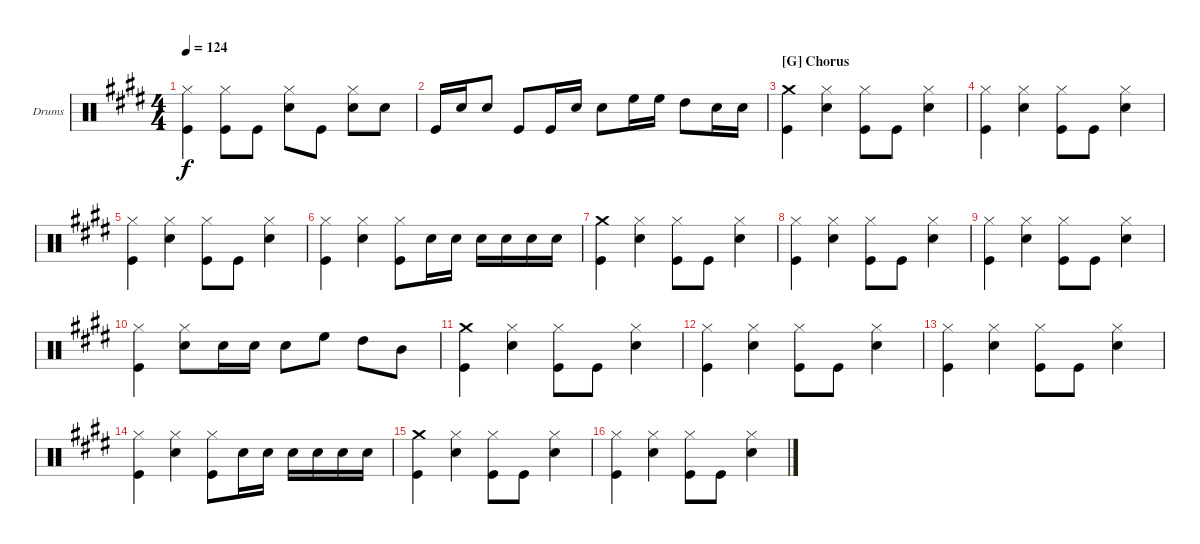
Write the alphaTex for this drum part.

\defaultSystemsLayout 4
\bracketExtendMode groupsimilarinstruments
\firstSystemTrackNameOrientation horizontal
\otherSystemsTrackNameOrientation horizontal
\track ("Drumkit" "Drums") {instrument percussion}
\staff {score}
\articulation defaults
\ts (4 4)
\tempo 124
\clef neutral
\ks e
("Hi-Hat (closed)" "Kick (hit)").4{dy f} ("Hi-Hat (closed)" "Kick (hit)").8 "Kick (hit)".8 ("Hi-Hat (closed)" "Snare (hit) 2").8 "Kick (hit)".8 ("Hi-Hat (closed)" "Snare (hit) 2").8 "Snare (hit) 2".8 |
"Kick (hit)".16 "Snare (hit) 2".16 "Snare (hit) 2".8 "Kick (hit)".8 "Kick (hit)".16 "Snare (hit) 2".16 "Snare (hit) 2".8 "High Floor Tom (hit)".16 "High Floor Tom (hit)".16 "High Tom (hit)".8 "Snare (hit) 2".16 "Snare (hit) 2".16 |
\section ("G" "Chorus")
("Crash medium (hit)" "Kick (hit)").4 ("Hi-Hat (closed)" "Snare (hit) 2").4 ("Hi-Hat (closed)" "Kick (hit)").8 "Kick (hit)".8 ("Hi-Hat (closed)" "Snare (hit) 2").4 |
("Hi-Hat (closed)" "Kick (hit)").4 ("Hi-Hat (closed)" "Snare (hit) 2").4 ("Hi-Hat (closed)" "Kick (hit)").8 "Kick (hit)".8 ("Hi-Hat (closed)" "Snare (hit) 2").4 |
("Hi-Hat (closed)" "Kick (hit)").4 ("Hi-Hat (closed)" "Snare (hit) 2").4 ("Hi-Hat (closed)" "Kick (hit)").8 "Kick (hit)".8 ("Hi-Hat (closed)" "Snare (hit) 2").4 |
("Hi-Hat (closed)" "Kick (hit)").4 ("Hi-Hat (closed)" "Snare (hit) 2").4 ("Hi-Hat (closed)" "Kick (hit)").8 "Snare (hit) 2".16 "Snare (hit) 2".16 "Snare (hit) 2".16 "Snare (hit) 2".16 "Snare (hit) 2".16 "Snare (hit) 2".16 |
("Crash medium (hit)" "Kick (hit)").4 ("Hi-Hat (closed)" "Snare (hit) 2").4 ("Hi-Hat (closed)" "Kick (hit)").8 "Kick (hit)".8 ("Hi-Hat (closed)" "Snare (hit) 2").4 |
("Hi-Hat (closed)" "Kick (hit)").4 ("Hi-Hat (closed)" "Snare (hit) 2").4 ("Hi-Hat (closed)" "Kick (hit)").8 "Kick (hit)".8 ("Hi-Hat (closed)" "Snare (hit) 2").4 |
("Hi-Hat (closed)" "Kick (hit)").4 ("Hi-Hat (closed)" "Snare (hit) 2").4 ("Hi-Hat (closed)" "Kick (hit)").8 "Kick (hit)".8 ("Hi-Hat (closed)" "Snare (hit) 2").4 |
("Hi-Hat (closed)" "Kick (hit)").4 ("Hi-Hat (closed)" "Snare (hit) 2").8 "Snare (hit) 2".16 "Snare (hit) 2".16 "Snare (hit) 2".8 "High Floor Tom (hit)".8 "High Tom (hit)".8 "Mid Tom (hit)".8 |
("Crash medium (hit)" "Kick (hit)").4 ("Hi-Hat (closed)" "Snare (hit) 2").4 ("Hi-Hat (closed)" "Kick (hit)").8 "Kick (hit)".8 ("Hi-Hat (closed)" "Snare (hit) 2").4 |
("Hi-Hat (closed)" "Kick (hit)").4 ("Hi-Hat (closed)" "Snare (hit) 2").4 ("Hi-Hat (closed)" "Kick (hit)").8 "Kick (hit)".8 ("Hi-Hat (closed)" "Snare (hit) 2").4 |
("Hi-Hat (closed)" "Kick (hit)").4 ("Hi-Hat (closed)" "Snare (hit) 2").4 ("Hi-Hat (closed)" "Kick (hit)").8 "Kick (hit)".8 ("Hi-Hat (closed)" "Snare (hit) 2").4 |
("Hi-Hat (closed)" "Kick (hit)").4 ("Hi-Hat (closed)" "Snare (hit) 2").4 ("Hi-Hat (closed)" "Kick (hit)").8 "Snare (hit) 2".16 "Snare (hit) 2".16 "Snare (hit) 2".16 "Snare (hit) 2".16 "Snare (hit) 2".16 "Snare (hit) 2".16 |
("Crash medium (hit)" "Kick (hit)").4 ("Hi-Hat (closed)" "Snare (hit) 2").4 ("Hi-Hat (closed)" "Kick (hit)").8 "Kick (hit)".8 ("Hi-Hat (closed)" "Snare (hit) 2").4 |
("Hi-Hat (closed)" "Kick (hit)").4 ("Hi-Hat (closed)" "Snare (hit) 2").4 ("Hi-Hat (closed)" "Kick (hit)").8 "Kick (hit)".8 ("Hi-Hat (closed)" "Snare (hit) 2").4
